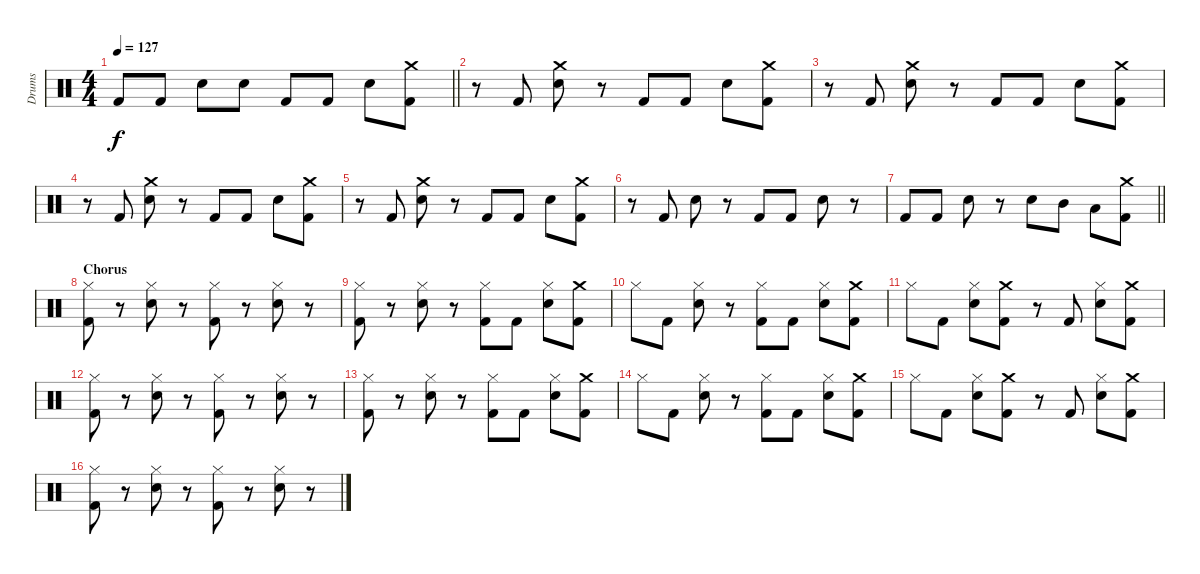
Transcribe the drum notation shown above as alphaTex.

\track ("Drums" "Drums") {instrument percussion}
\staff {score}
\articulation defaults
\ts (4 4)
\tempo 127
\clef neutral
\barLineRight lightlight
\ks c "Kick (hit) 2".8{dy f} "Kick (hit) 2".8 "Snare (hit) 2".8 "Snare (hit) 2".8 "Kick (hit) 2".8 "Kick (hit) 2".8 "Snare (hit) 2".8
("Crash medium (hit)" "Kick (hit) 2").8 |
r.8 "Kick (hit) 2".8 ("Crash medium (hit)" "Snare (hit) 2").8 r.8 "Kick (hit) 2".8 "Kick (hit) 2".8 "Snare (hit) 2".8 ("Crash medium (hit)" "Kick (hit) 2").8 |
r.8 "Kick (hit) 2".8 ("Crash medium (hit)" "Snare (hit) 2").8 r.8 "Kick (hit) 2".8 "Kick (hit) 2".8 "Snare (hit) 2".8 ("Crash medium (hit)" "Kick (hit) 2").8 |
r.8 "Kick (hit) 2".8 ("Crash medium (hit)" "Snare (hit) 2").8 r.8 "Kick (hit) 2".8 "Kick (hit) 2".8 "Snare (hit) 2".8 ("Crash medium (hit)" "Kick (hit) 2").8 |
r.8 "Kick (hit) 2".8 ("Crash medium (hit)" "Snare (hit) 2").8 r.8 "Kick (hit) 2".8 "Kick (hit) 2".8 "Snare (hit) 2".8 ("Crash medium (hit)" "Kick (hit) 2").8 |
r.8 "Kick (hit) 2".8 "Snare (hit) 2".8 r.8 "Kick (hit) 2".8 "Kick (hit) 2".8 "Snare (hit) 2".8 r.8 |
\barLineRight lightlight "Kick (hit) 2".8 "Kick (hit) 2".8 "Snare (hit) 2".8
r.8 "Snare (hit) 2".8 "Mid Tom (hit)".8 "Low Tom (hit)".8 ("Crash medium (hit)" "Kick (hit) 2").8 |
\section ("" "Chorus")
("Hi-Hat (closed)" "Kick (hit) 2").8 r.8 ("Hi-Hat (closed)" "Snare (hit) 2").8 r.8 ("Hi-Hat (closed)" "Kick (hit) 2").8 r.8 ("Hi-Hat (closed)" "Snare (hit) 2").8 r.8 |
("Hi-Hat (closed)" "Kick (hit) 2").8 r.8 ("Hi-Hat (closed)" "Snare (hit) 2").8 r.8 ("Hi-Hat (closed)" "Kick (hit) 2").8 "Kick (hit) 2".8 ("Hi-Hat (closed)" "Snare (hit) 2").8 ("Crash medium (hit)" "Kick (hit) 2").8 |
"Hi-Hat (closed)".8 "Kick (hit) 2".8 ("Hi-Hat (closed)" "Snare (hit) 2").8 r.8 ("Hi-Hat (closed)" "Kick (hit) 2").8 "Kick (hit) 2".8 ("Hi-Hat (closed)" "Snare (hit) 2").8 ("Crash medium (hit)" "Kick (hit) 2").8 |
"Hi-Hat (closed)".8 "Kick (hit) 2".8 ("Hi-Hat (closed)" "Snare (hit) 2").8 ("Crash medium (hit)" "Kick (hit) 2").8 r.8 "Kick (hit) 2".8 ("Hi-Hat (closed)" "Snare (hit) 2").8 ("Crash medium (hit)" "Kick (hit) 2").8 |
("Hi-Hat (closed)" "Kick (hit) 2").8 r.8 ("Hi-Hat (closed)" "Snare (hit) 2").8 r.8 ("Hi-Hat (closed)" "Kick (hit) 2").8 r.8 ("Hi-Hat (closed)" "Snare (hit) 2").8 r.8 |
("Hi-Hat (closed)" "Kick (hit) 2").8 r.8 ("Hi-Hat (closed)" "Snare (hit) 2").8 r.8 ("Hi-Hat (closed)" "Kick (hit) 2").8 "Kick (hit) 2".8 ("Hi-Hat (closed)" "Snare (hit) 2").8 ("Crash medium (hit)" "Kick (hit) 2").8 |
"Hi-Hat (closed)".8 "Kick (hit) 2".8 ("Hi-Hat (closed)" "Snare (hit) 2").8 r.8 ("Hi-Hat (closed)" "Kick (hit) 2").8 "Kick (hit) 2".8 ("Hi-Hat (closed)" "Snare (hit) 2").8 ("Crash medium (hit)" "Kick (hit) 2").8 |
"Hi-Hat (closed)".8 "Kick (hit) 2".8 ("Hi-Hat (closed)" "Snare (hit) 2").8 ("Crash medium (hit)" "Kick (hit) 2").8 r.8 "Kick (hit) 2".8 ("Hi-Hat (closed)" "Snare (hit) 2").8 ("Crash medium (hit)" "Kick (hit) 2").8 |
("Hi-Hat (closed)" "Kick (hit) 2").8 r.8 ("Hi-Hat (closed)" "Snare (hit) 2").8 r.8 ("Hi-Hat (closed)" "Kick (hit) 2").8 r.8 ("Hi-Hat (closed)" "Snare (hit) 2").8 r.8
